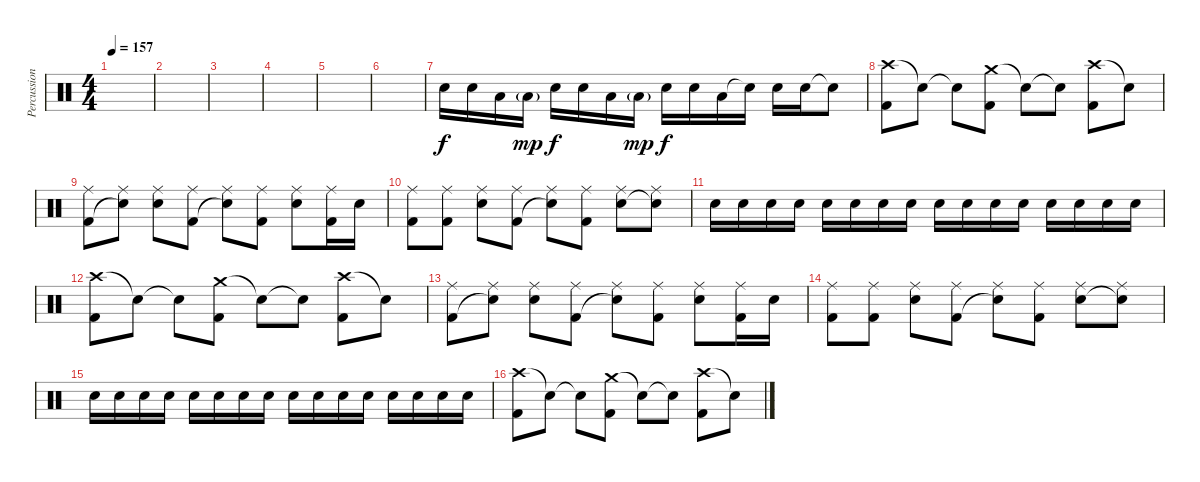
\track ("Percussion" "Percussion") {instrument percussion}
\staff {score}
\articulation defaults
\ts (4 4)
\tempo 157
\clef neutral
\ks c
|
|
|
|
|
|
"Electric Snare (hit)".16 "Electric Snare (hit)".16 "Low Tom (hit)".16 "Low Tom (hit)"{g}.16{dy mp} "Electric Snare (hit)".16{dy f} "Electric Snare (hit)".16 "Low Tom (hit)".16 "Low Tom (hit)"{g}.16{dy mp} "Electric Snare (hit)".16{dy f} "Electric Snare (hit)".16 "Low Tom (hit)".16 "Snare (hit)"{t}.16 "Electric Snare (hit)".16 "Electric Snare (hit)".16 "Snare (hit)"{t}.8 |
("Crash high (hit)" "Kick (hit) 2").8 "Snare (hit)"{t}.8 "Snare (hit)"{t}.8 ("Crash medium (hit)" "Kick (hit) 2").8 "Snare (hit)"{t}.8 "Snare (hit)"{t}.8 ("Crash high (hit)" "Kick (hit) 2").8 "Snare (hit)"{t}.8 |
("Ride (middle)" "Kick (hit) 2").8 ("Ride (middle)" "Snare (hit)"{t}).8 ("Ride (middle)" "Electric Snare (hit)").8 ("Ride (middle)" "Kick (hit) 2").8 ("Ride (middle)" "Snare (hit)"{t}).8 ("Ride (middle)" "Kick (hit) 2").8 ("Ride (middle)" "Electric Snare (hit)").8 ("Ride (middle)" "Kick (hit) 2").16 "Electric Snare (hit)".16 |
("Ride (middle)" "Kick (hit) 2").8 ("Ride (middle)" "Kick (hit) 2").8 ("Ride (middle)" "Electric Snare (hit)").8 ("Ride (middle)" "Kick (hit) 2").8 ("Ride (middle)" "Snare (hit)"{t}).8 ("Ride (middle)" "Kick (hit) 2").8 ("Ride (middle)" "Electric Snare (hit)").8 ("Ride (middle)" "Snare (hit)"{t}).8 |
"Electric Snare (hit)".16 "Electric Snare (hit)".16 "Electric Snare (hit)".16 "Electric Snare (hit)".16 "Electric Snare (hit)".16 "Electric Snare (hit)".16 "Electric Snare (hit)".16 "Electric Snare (hit)".16 "Electric Snare (hit)".16 "Electric Snare (hit)".16 "Electric Snare (hit)".16 "Electric Snare (hit)".16 "Electric Snare (hit)".16 "Electric Snare (hit)".16 "Electric Snare (hit)".16 "Electric Snare (hit)".16 |
("Crash high (hit)" "Kick (hit) 2").8 "Snare (hit)"{t}.8 "Snare (hit)"{t}.8 ("Crash medium (hit)" "Kick (hit) 2").8 "Snare (hit)"{t}.8 "Snare (hit)"{t}.8 ("Crash high (hit)" "Kick (hit) 2").8 "Snare (hit)"{t}.8 |
("Ride (middle)" "Kick (hit) 2").8 ("Ride (middle)" "Snare (hit)"{t}).8 ("Ride (middle)" "Electric Snare (hit)").8 ("Ride (middle)" "Kick (hit) 2").8 ("Ride (middle)" "Snare (hit)"{t}).8 ("Ride (middle)" "Kick (hit) 2").8 ("Ride (middle)" "Electric Snare (hit)").8 ("Ride (middle)" "Kick (hit) 2").16 "Electric Snare (hit)".16 |
("Ride (middle)" "Kick (hit) 2").8 ("Ride (middle)" "Kick (hit) 2").8 ("Ride (middle)" "Electric Snare (hit)").8 ("Ride (middle)" "Kick (hit) 2").8 ("Ride (middle)" "Snare (hit)"{t}).8 ("Ride (middle)" "Kick (hit) 2").8 ("Ride (middle)" "Electric Snare (hit)").8 ("Ride (middle)" "Snare (hit)"{t}).8 |
"Electric Snare (hit)".16 "Electric Snare (hit)".16 "Electric Snare (hit)".16 "Electric Snare (hit)".16 "Electric Snare (hit)".16 "Electric Snare (hit)".16 "Electric Snare (hit)".16 "Electric Snare (hit)".16 "Electric Snare (hit)".16 "Electric Snare (hit)".16 "Electric Snare (hit)".16 "Electric Snare (hit)".16 "Electric Snare (hit)".16 "Electric Snare (hit)".16 "Electric Snare (hit)".16 "Electric Snare (hit)".16 |
("Crash high (hit)" "Kick (hit) 2").8 "Snare (hit)"{t}.8 "Snare (hit)"{t}.8 ("Crash medium (hit)" "Kick (hit) 2").8 "Snare (hit)"{t}.8 "Snare (hit)"{t}.8 ("Crash high (hit)" "Kick (hit) 2").8 "Snare (hit)"{t}.8
